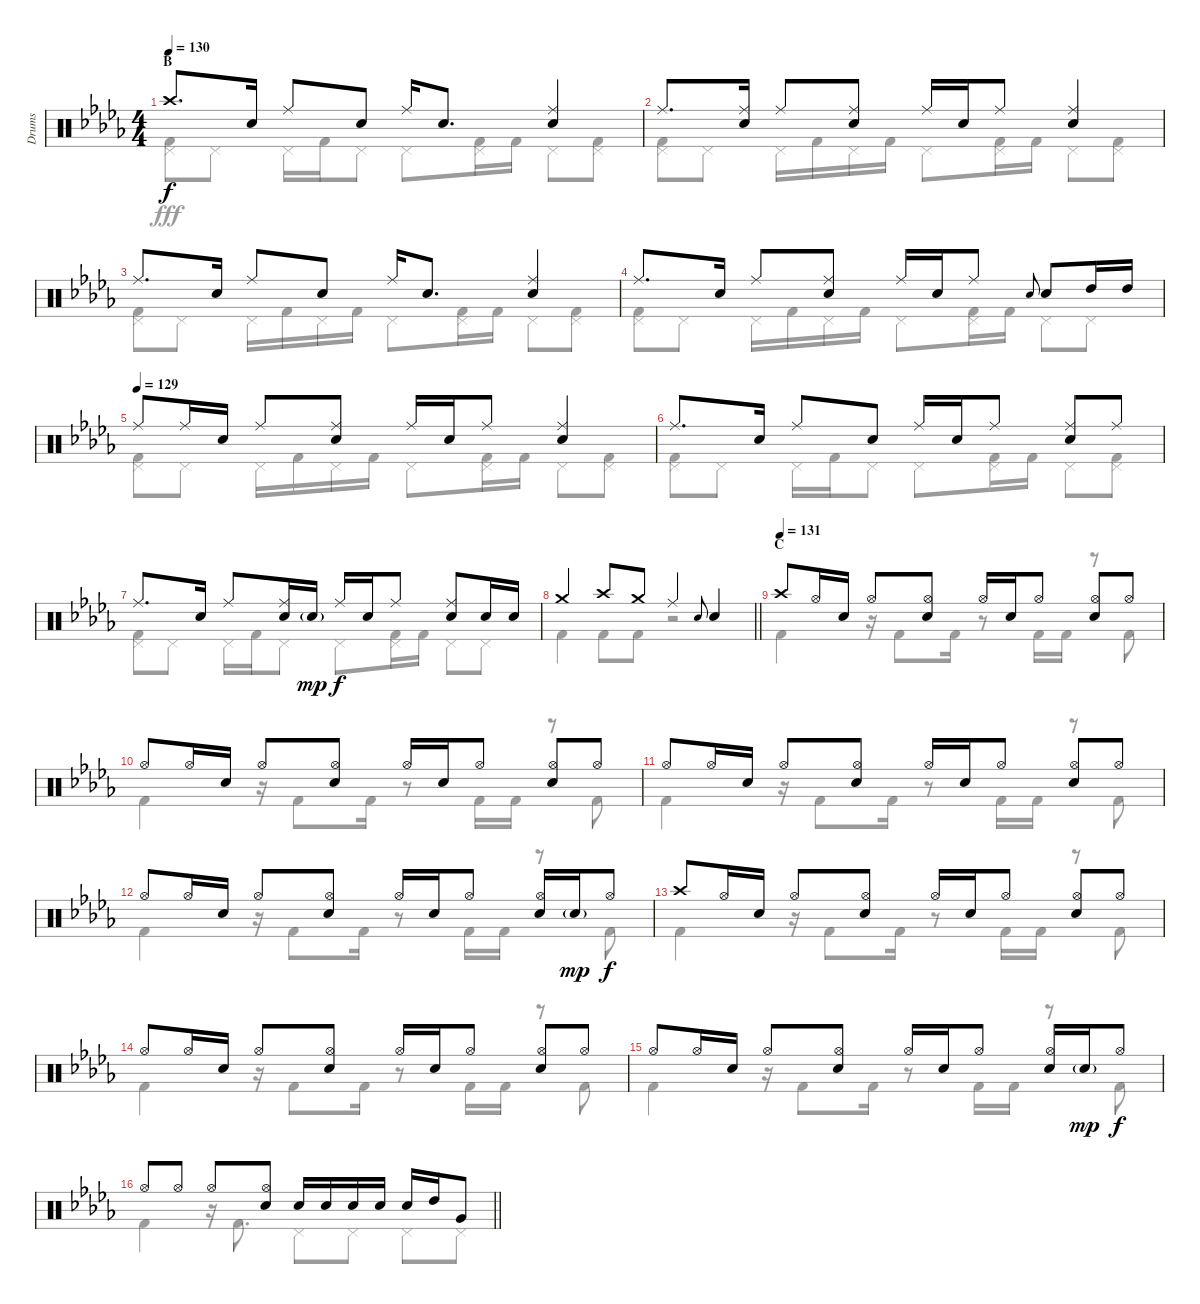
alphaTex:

\track ("Drums" "Drums") {instrument percussion}
\staff {score}
\articulation defaults
\voice
\ts (4 4)
\section ("" "B")
\tempo 130
\clef neutral
\ks db "Crash high (hit)".8{d dy f} "Snare (hit) 2".16 "Ride (middle)".8 "Snare (hit) 2".8 "Ride (middle)".16 "Snare (hit) 2".8{d}
("Ride (middle)" "Snare (hit) 2").4 |
"Ride (middle)".8{d} ("Ride (middle)" "Snare (hit) 2").16 "Ride (middle)".8 ("Ride (middle)" "Snare (hit) 2").8 "Ride (middle)".16 "Snare (hit) 2".16 "Ride (middle)".8 ("Ride (middle)" "Snare (hit) 2").4 |
"Ride (middle)".8{d} "Snare (hit) 2".16 "Ride (middle)".8 "Snare (hit) 2".8 "Ride (middle)".16 "Snare (hit) 2".8{d} ("Ride (middle)" "Snare (hit) 2").4 |
"Ride (middle)".8{d} "Snare (hit) 2".16 "Ride (middle)".8 ("Ride (middle)" "Snare (hit) 2").8 "Ride (middle)".16 "Snare (hit) 2".16 "Ride (middle)".8 "Snare (hit) 2".8{gr onbeat} "Snare (hit) 2".8 "High Tom (hit)".16 "High Tom (hit)".16 |
\tempo (129)
"Ride (middle)".8 "Ride (middle)".16 "Snare (hit) 2".16 "Ride (middle)".8 ("Ride (middle)" "Snare (hit) 2").8 "Ride (middle)".16 "Snare (hit) 2".16 "Ride (middle)".8 ("Ride (middle)" "Snare (hit) 2").4 |
"Ride (middle)".8{d} "Snare (hit) 2".16 "Ride (middle)".8 "Snare (hit) 2".8 "Ride (middle)".16 "Snare (hit) 2".16 "Ride (middle)".8 ("Ride (middle)" "Snare (hit) 2").8 "Ride (middle)".8 |
"Ride (middle)".8{d} "Snare (hit) 2".16 "Ride (middle)".8 ("Ride (middle)" "Snare (hit) 2").16 "Snare (hit) 2"{g}.16{dy mp} "Ride (middle)".16{dy f} "Snare (hit) 2".16 "Ride (middle)".8 ("Ride (middle)" "Snare (hit) 2").8 "Snare (hit) 2".16 "Snare (hit) 2".16 |
\barLineRight lightlight "Crash medium (hit)".4 "Crash high (hit)".8 "Crash medium (hit)".8 "Ride (middle)".4 "Snare (hit) 2".8{gr onbeat} "Snare (hit) 2".4
|
\section ("" "C")
\tempo (131)
"Crash high (hit)".8 "Hi-Hat (open)".16 "Snare (hit) 2".16 "Hi-Hat (open)".8 ("Hi-Hat (open)" "Snare (hit) 2").8 "Hi-Hat (open)".16 "Snare (hit) 2".16 "Hi-Hat (open)".8 ("Hi-Hat (open)" "Snare (hit) 2").8 "Hi-Hat (open)".8 |
"Hi-Hat (open)".8 "Hi-Hat (open)".16 "Snare (hit) 2".16 "Hi-Hat (open)".8 ("Hi-Hat (open)" "Snare (hit) 2").8 "Hi-Hat (open)".16 "Snare (hit) 2".16 "Hi-Hat (open)".8 ("Hi-Hat (open)" "Snare (hit) 2").8 "Hi-Hat (open)".8 |
"Hi-Hat (open)".8 "Hi-Hat (open)".16 "Snare (hit) 2".16 "Hi-Hat (open)".8 ("Hi-Hat (open)" "Snare (hit) 2").8 "Hi-Hat (open)".16 "Snare (hit) 2".16 "Hi-Hat (open)".8 ("Hi-Hat (open)" "Snare (hit) 2").8 "Hi-Hat (open)".8 |
"Hi-Hat (open)".8 "Hi-Hat (open)".16 "Snare (hit) 2".16 "Hi-Hat (open)".8 ("Hi-Hat (open)" "Snare (hit) 2").8 "Hi-Hat (open)".16 "Snare (hit) 2".16 "Hi-Hat (open)".8 ("Hi-Hat (open)" "Snare (hit) 2").16 "Snare (hit) 2"{g}.16{dy mp} "Hi-Hat (open)".8{dy f} |
"Crash high (hit)".8 "Hi-Hat (open)".16 "Snare (hit) 2".16 "Hi-Hat (open)".8 ("Hi-Hat (open)" "Snare (hit) 2").8 "Hi-Hat (open)".16 "Snare (hit) 2".16 "Hi-Hat (open)".8 ("Hi-Hat (open)" "Snare (hit) 2").8 "Hi-Hat (open)".8 |
"Hi-Hat (open)".8 "Hi-Hat (open)".16 "Snare (hit) 2".16 "Hi-Hat (open)".8 ("Hi-Hat (open)" "Snare (hit) 2").8 "Hi-Hat (open)".16 "Snare (hit) 2".16 "Hi-Hat (open)".8 ("Hi-Hat (open)" "Snare (hit) 2").8 "Hi-Hat (open)".8 |
"Hi-Hat (open)".8 "Hi-Hat (open)".16 "Snare (hit) 2".16 "Hi-Hat (open)".8 ("Hi-Hat (open)" "Snare (hit) 2").8 "Hi-Hat (open)".16 "Snare (hit) 2".16 "Hi-Hat (open)".8 ("Hi-Hat (open)" "Snare (hit) 2").16 "Snare (hit) 2"{g}.16{dy mp} "Hi-Hat (open)".8{dy f} |
\barLineRight lightlight "Hi-Hat (open)".8 "Hi-Hat (open)".8 "Hi-Hat (open)".8
("Hi-Hat (open)" "Snare (hit) 2").8 "Snare (hit) 2".16 "Snare (hit) 2".16 "Snare (hit) 2".16 "Snare (hit) 2".16 "Snare (hit) 2".16 "High Tom (hit)".16 "Very Low Tom (hit)".8
\voice
\clef neutral
\ottava regular
\simile none
\ks db
("Pedal Hi-Hat (hit)" "Kick (hit) 2").8{dy fff} "Pedal Hi-Hat (hit)".8 "Pedal Hi-Hat (hit)".16 "Kick (hit) 2".16 "Pedal Hi-Hat (hit)".8 "Pedal Hi-Hat (hit)".8 ("Pedal Hi-Hat (hit)" "Kick (hit) 2").16 "Kick (hit) 2".16 "Pedal Hi-Hat (hit)".8 ("Pedal Hi-Hat (hit)" "Kick (hit) 2").8 |
("Pedal Hi-Hat (hit)" "Kick (hit) 2").8 "Pedal Hi-Hat (hit)".8 "Pedal Hi-Hat (hit)".16 "Kick (hit) 2".16 "Pedal Hi-Hat (hit)".16 "Kick (hit) 2".16 "Pedal Hi-Hat (hit)".8 ("Pedal Hi-Hat (hit)" "Kick (hit) 2").16 "Kick (hit) 2".16 "Pedal Hi-Hat (hit)".8 ("Pedal Hi-Hat (hit)" "Kick (hit) 2").8 |
("Pedal Hi-Hat (hit)" "Kick (hit) 2").8 "Pedal Hi-Hat (hit)".8 "Pedal Hi-Hat (hit)".16 "Kick (hit) 2".16 "Pedal Hi-Hat (hit)".16 "Kick (hit) 2".16 "Pedal Hi-Hat (hit)".8 ("Pedal Hi-Hat (hit)" "Kick (hit) 2").16 "Kick (hit) 2".16 "Pedal Hi-Hat (hit)".8 ("Pedal Hi-Hat (hit)" "Kick (hit) 2").8 |
("Pedal Hi-Hat (hit)" "Kick (hit) 2").8 "Pedal Hi-Hat (hit)".8 "Pedal Hi-Hat (hit)".16 "Kick (hit) 2".16 "Pedal Hi-Hat (hit)".16 "Kick (hit) 2".16 "Pedal Hi-Hat (hit)".8 ("Pedal Hi-Hat (hit)" "Kick (hit) 2").16 "Kick (hit) 2".16 "Pedal Hi-Hat (hit)".8 "Pedal Hi-Hat (hit)".8 |
("Pedal Hi-Hat (hit)" "Kick (hit) 2").8 "Pedal Hi-Hat (hit)".8 "Pedal Hi-Hat (hit)".16 "Kick (hit) 2".16 "Pedal Hi-Hat (hit)".16 "Kick (hit) 2".16 "Pedal Hi-Hat (hit)".8 ("Pedal Hi-Hat (hit)" "Kick (hit) 2").16 "Kick (hit) 2".16 "Pedal Hi-Hat (hit)".8 ("Pedal Hi-Hat (hit)" "Kick (hit) 2").8 |
("Pedal Hi-Hat (hit)" "Kick (hit) 2").8 "Pedal Hi-Hat (hit)".8 "Pedal Hi-Hat (hit)".16 "Kick (hit) 2".16 "Pedal Hi-Hat (hit)".8 "Pedal Hi-Hat (hit)".8 ("Pedal Hi-Hat (hit)" "Kick (hit) 2").16 "Kick (hit) 2".16 "Pedal Hi-Hat (hit)".8 ("Pedal Hi-Hat (hit)" "Kick (hit) 2").8 |
("Pedal Hi-Hat (hit)" "Kick (hit) 2").8 "Pedal Hi-Hat (hit)".8 "Pedal Hi-Hat (hit)".16 "Kick (hit) 2".16 "Pedal Hi-Hat (hit)".8 "Pedal Hi-Hat (hit)".8 ("Pedal Hi-Hat (hit)" "Kick (hit) 2").16 "Kick (hit) 2".16 "Pedal Hi-Hat (hit)".8 "Pedal Hi-Hat (hit)".8 |
\barLineRight lightlight "Kick (hit) 2".4 "Kick (hit) 2".8 "Kick (hit) 2".8
r.2 |
"Kick (hit) 2".4 r.16 "Kick (hit) 2".8 "Kick (hit) 2".16 r.8 "Kick (hit) 2".16 "Kick (hit) 2".16 r.8 "Kick (hit) 2".8 |
"Kick (hit) 2".4 r.16 "Kick (hit) 2".8 "Kick (hit) 2".16 r.8 "Kick (hit) 2".16 "Kick (hit) 2".16 r.8 "Kick (hit) 2".8 |
"Kick (hit) 2".4 r.16 "Kick (hit) 2".8 "Kick (hit) 2".16 r.8 "Kick (hit) 2".16 "Kick (hit) 2".16 r.8 "Kick (hit) 2".8 |
"Kick (hit) 2".4 r.16 "Kick (hit) 2".8 "Kick (hit) 2".16 r.8 "Kick (hit) 2".16 "Kick (hit) 2".16 r.8 "Kick (hit) 2".8 |
"Kick (hit) 2".4 r.16 "Kick (hit) 2".8 "Kick (hit) 2".16 r.8 "Kick (hit) 2".16 "Kick (hit) 2".16 r.8 "Kick (hit) 2".8 |
"Kick (hit) 2".4 r.16 "Kick (hit) 2".8 "Kick (hit) 2".16 r.8 "Kick (hit) 2".16 "Kick (hit) 2".16 r.8 "Kick (hit) 2".8 |
"Kick (hit) 2".4 r.16 "Kick (hit) 2".8 "Kick (hit) 2".16 r.8 "Kick (hit) 2".16 "Kick (hit) 2".16 r.8 "Kick (hit) 2".8 |
\barLineRight lightlight "Kick (hit) 2".4
r.16 "Kick (hit) 2".8{d} "Pedal Hi-Hat (hit)".8 "Pedal Hi-Hat (hit)".8 "Pedal Hi-Hat (hit)".8 "Pedal Hi-Hat (hit)".8
